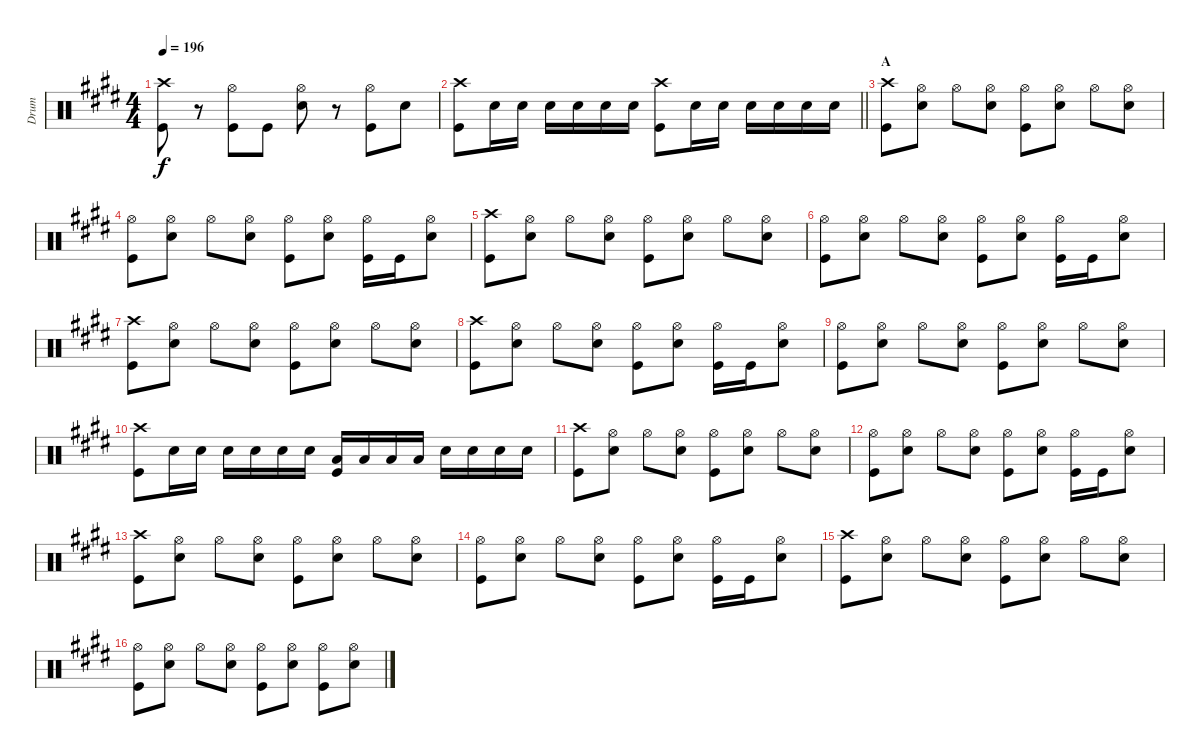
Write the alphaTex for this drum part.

\track ("Drum" "Drum") {instrument percussion}
\staff {score}
\articulation defaults
\ts (4 4)
\tempo 196
\clef neutral
\ks e
("Crash high (hit)" "Kick (hit)").8{dy f} r.8 ("Hi-Hat (open)" "Kick (hit)").8 "Kick (hit)".8 ("Hi-Hat (open)" "Snare (hit) 2").8 r.8 ("Hi-Hat (open)" "Kick (hit)").8 "Snare (hit) 2".8 |
\barLineRight lightlight
("Crash high (hit)" "Kick (hit)").8 "Snare (hit) 2".16 "Snare (hit) 2".16 "Snare (hit) 2".16 "Snare (hit) 2".16 "Snare (hit) 2".16 "Snare (hit) 2".16 ("Crash high (hit)" "Kick (hit)").8 "Snare (hit) 2".16 "Snare (hit) 2".16 "Snare (hit) 2".16 "Snare (hit) 2".16 "Snare (hit) 2".16 "Snare (hit) 2".16 |
\section ("" "A")
("Crash high (hit)" "Kick (hit)").8 ("Hi-Hat (open)" "Snare (hit) 2").8 "Hi-Hat (open)".8 ("Hi-Hat (open)" "Snare (hit) 2").8 ("Hi-Hat (open)" "Kick (hit)").8 ("Hi-Hat (open)" "Snare (hit) 2").8 "Hi-Hat (open)".8 ("Hi-Hat (open)" "Snare (hit) 2").8 |
("Hi-Hat (open)" "Kick (hit)").8 ("Hi-Hat (open)" "Snare (hit) 2").8 "Hi-Hat (open)".8 ("Hi-Hat (open)" "Snare (hit) 2").8 ("Hi-Hat (open)" "Kick (hit)").8 ("Hi-Hat (open)" "Snare (hit) 2").8 ("Hi-Hat (open)" "Kick (hit)").16 "Kick (hit)".16 ("Hi-Hat (open)" "Snare (hit) 2").8 |
("Crash high (hit)" "Kick (hit)").8 ("Hi-Hat (open)" "Snare (hit) 2").8 "Hi-Hat (open)".8 ("Hi-Hat (open)" "Snare (hit) 2").8 ("Hi-Hat (open)" "Kick (hit)").8 ("Hi-Hat (open)" "Snare (hit) 2").8 "Hi-Hat (open)".8 ("Hi-Hat (open)" "Snare (hit) 2").8 |
("Hi-Hat (open)" "Kick (hit)").8 ("Hi-Hat (open)" "Snare (hit) 2").8 "Hi-Hat (open)".8 ("Hi-Hat (open)" "Snare (hit) 2").8 ("Hi-Hat (open)" "Kick (hit)").8 ("Hi-Hat (open)" "Snare (hit) 2").8 ("Hi-Hat (open)" "Kick (hit)").16 "Kick (hit)".16 ("Hi-Hat (open)" "Snare (hit) 2").8 |
("Crash high (hit)" "Kick (hit)").8 ("Hi-Hat (open)" "Snare (hit) 2").8 "Hi-Hat (open)".8 ("Hi-Hat (open)" "Snare (hit) 2").8 ("Hi-Hat (open)" "Kick (hit)").8 ("Hi-Hat (open)" "Snare (hit) 2").8 "Hi-Hat (open)".8 ("Hi-Hat (open)" "Snare (hit) 2").8 |
("Crash high (hit)" "Kick (hit)").8 ("Hi-Hat (open)" "Snare (hit) 2").8 "Hi-Hat (open)".8 ("Hi-Hat (open)" "Snare (hit) 2").8 ("Hi-Hat (open)" "Kick (hit)").8 ("Hi-Hat (open)" "Snare (hit) 2").8 ("Hi-Hat (open)" "Kick (hit)").16 "Kick (hit)".16 ("Hi-Hat (open)" "Snare (hit) 2").8 |
("Hi-Hat (open)" "Kick (hit)").8 ("Hi-Hat (open)" "Snare (hit) 2").8 "Hi-Hat (open)".8 ("Hi-Hat (open)" "Snare (hit) 2").8 ("Hi-Hat (open)" "Kick (hit)").8 ("Hi-Hat (open)" "Snare (hit) 2").8 "Hi-Hat (open)".8 ("Hi-Hat (open)" "Snare (hit) 2").8 |
("Crash high (hit)" "Kick (hit)").8 "Snare (hit) 2".16 "Snare (hit) 2".16 "Snare (hit) 2".16 "Snare (hit) 2".16 "Snare (hit) 2".16 "Snare (hit) 2".16 ("Low Tom (hit)" "Kick (hit)").16 "Low Tom (hit)".16 "Low Tom (hit)".16 "Low Tom (hit)".16 "Snare (hit) 2".16 "Snare (hit) 2".16 "Snare (hit) 2".16 "Snare (hit) 2".16 |
("Crash high (hit)" "Kick (hit)").8 ("Hi-Hat (open)" "Snare (hit) 2").8 "Hi-Hat (open)".8 ("Hi-Hat (open)" "Snare (hit) 2").8 ("Hi-Hat (open)" "Kick (hit)").8 ("Hi-Hat (open)" "Snare (hit) 2").8 "Hi-Hat (open)".8 ("Hi-Hat (open)" "Snare (hit) 2").8 |
("Hi-Hat (open)" "Kick (hit)").8 ("Hi-Hat (open)" "Snare (hit) 2").8 "Hi-Hat (open)".8 ("Hi-Hat (open)" "Snare (hit) 2").8 ("Hi-Hat (open)" "Kick (hit)").8 ("Hi-Hat (open)" "Snare (hit) 2").8 ("Hi-Hat (open)" "Kick (hit)").16 "Kick (hit)".16 ("Hi-Hat (open)" "Snare (hit) 2").8 |
("Crash high (hit)" "Kick (hit)").8 ("Hi-Hat (open)" "Snare (hit) 2").8 "Hi-Hat (open)".8 ("Hi-Hat (open)" "Snare (hit) 2").8 ("Hi-Hat (open)" "Kick (hit)").8 ("Hi-Hat (open)" "Snare (hit) 2").8 "Hi-Hat (open)".8 ("Hi-Hat (open)" "Snare (hit) 2").8 |
("Hi-Hat (open)" "Kick (hit)").8 ("Hi-Hat (open)" "Snare (hit) 2").8 "Hi-Hat (open)".8 ("Hi-Hat (open)" "Snare (hit) 2").8 ("Hi-Hat (open)" "Kick (hit)").8 ("Hi-Hat (open)" "Snare (hit) 2").8 ("Hi-Hat (open)" "Kick (hit)").16 "Kick (hit)".16 ("Hi-Hat (open)" "Snare (hit) 2").8 |
("Crash high (hit)" "Kick (hit)").8 ("Hi-Hat (open)" "Snare (hit) 2").8 "Hi-Hat (open)".8 ("Hi-Hat (open)" "Snare (hit) 2").8 ("Hi-Hat (open)" "Kick (hit)").8 ("Hi-Hat (open)" "Snare (hit) 2").8 "Hi-Hat (open)".8 ("Hi-Hat (open)" "Snare (hit) 2").8 |
("Hi-Hat (open)" "Kick (hit)").8 ("Hi-Hat (open)" "Snare (hit) 2").8 "Hi-Hat (open)".8 ("Hi-Hat (open)" "Snare (hit) 2").8 ("Hi-Hat (open)" "Kick (hit)").8 ("Hi-Hat (open)" "Snare (hit) 2").8 ("Hi-Hat (open)" "Kick (hit)").8 ("Hi-Hat (open)" "Snare (hit) 2").8
